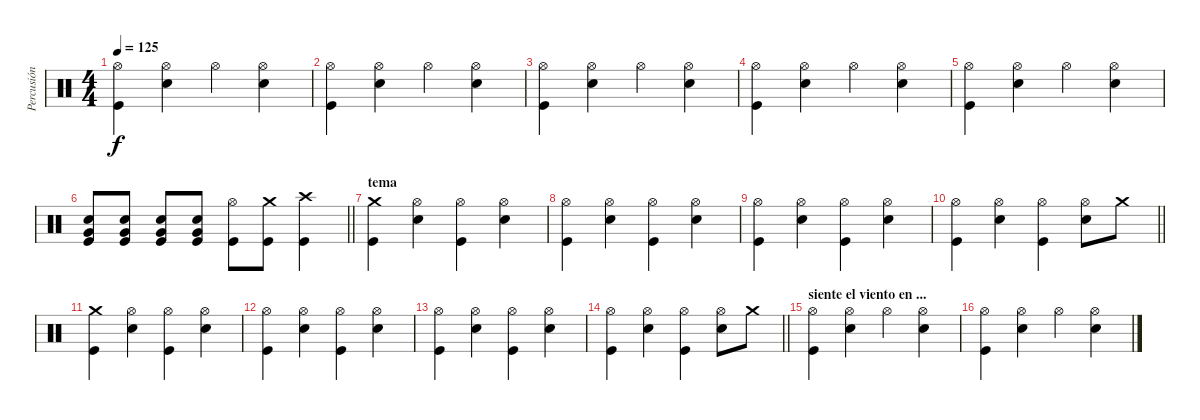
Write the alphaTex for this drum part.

\track ("Percusión" "Percusión") {instrument percussion}
\staff {score}
\articulation defaults
\ts (4 4)
\tempo 125
\clef neutral
\ks c
("Hi-Hat (open)" "Kick (hit)").4{dy f} ("Hi-Hat (open)" "Electric Snare (hit)").4 "Hi-Hat (open)".4 ("Hi-Hat (open)" "Electric Snare (hit)").4 |
("Hi-Hat (open)" "Kick (hit)").4 ("Hi-Hat (open)" "Electric Snare (hit)").4 "Hi-Hat (open)".4 ("Hi-Hat (open)" "Electric Snare (hit)").4 |
("Hi-Hat (open)" "Kick (hit)").4 ("Hi-Hat (open)" "Electric Snare (hit)").4 "Hi-Hat (open)".4 ("Hi-Hat (open)" "Electric Snare (hit)").4 |
("Hi-Hat (open)" "Kick (hit)").4 ("Hi-Hat (open)" "Electric Snare (hit)").4 "Hi-Hat (open)".4 ("Hi-Hat (open)" "Electric Snare (hit)").4 |
("Hi-Hat (open)" "Kick (hit)").4 ("Hi-Hat (open)" "Electric Snare (hit)").4 "Hi-Hat (open)".4 ("Hi-Hat (open)" "Electric Snare (hit)").4 |
\barLineRight lightlight
("Electric Snare (hit)" "Very Low Tom (hit)" "Kick (hit)").8 ("Electric Snare (hit)" "Very Low Tom (hit)" "Kick (hit)").8 ("Electric Snare (hit)" "Very Low Tom (hit)" "Kick (hit)").8 ("Electric Snare (hit)" "Very Low Tom (hit)" "Kick (hit)").8 ("Hi-Hat (open)" "Kick (hit)").8 ("Crash medium (hit)" "Kick (hit)").8 ("Crash high (hit)" "Kick (hit)").4 |
\section ("" "tema")
("Crash medium (hit)" "Kick (hit)").4 ("Hi-Hat (open)" "Electric Snare (hit)").4 ("Hi-Hat (open)" "Kick (hit)").4 ("Hi-Hat (open)" "Electric Snare (hit)").4 |
("Hi-Hat (open)" "Kick (hit)").4 ("Hi-Hat (open)" "Electric Snare (hit)").4 ("Hi-Hat (open)" "Kick (hit)").4 ("Hi-Hat (open)" "Electric Snare (hit)").4 |
("Hi-Hat (open)" "Kick (hit)").4 ("Hi-Hat (open)" "Electric Snare (hit)").4 ("Hi-Hat (open)" "Kick (hit)").4 ("Hi-Hat (open)" "Electric Snare (hit)").4 |
\barLineRight lightlight
("Hi-Hat (open)" "Kick (hit)").4 ("Hi-Hat (open)" "Electric Snare (hit)").4 ("Hi-Hat (open)" "Kick (hit)").4 ("Hi-Hat (open)" "Electric Snare (hit)").8 "Crash medium (hit)".8 |
("Crash medium (hit)" "Kick (hit)").4 ("Hi-Hat (open)" "Electric Snare (hit)").4 ("Hi-Hat (open)" "Kick (hit)").4 ("Hi-Hat (open)" "Electric Snare (hit)").4 |
("Hi-Hat (open)" "Kick (hit)").4 ("Hi-Hat (open)" "Electric Snare (hit)").4 ("Hi-Hat (open)" "Kick (hit)").4 ("Hi-Hat (open)" "Electric Snare (hit)").4 |
("Hi-Hat (open)" "Kick (hit)").4 ("Hi-Hat (open)" "Electric Snare (hit)").4 ("Hi-Hat (open)" "Kick (hit)").4 ("Hi-Hat (open)" "Electric Snare (hit)").4 |
\barLineRight lightlight
("Hi-Hat (open)" "Kick (hit)").4 ("Hi-Hat (open)" "Electric Snare (hit)").4 ("Hi-Hat (open)" "Kick (hit)").4 ("Hi-Hat (open)" "Electric Snare (hit)").8 "Crash medium (hit)".8 |
\section ("" "siente el viento en ...")
("Hi-Hat (open)" "Kick (hit)").4{volume 12} ("Hi-Hat (open)" "Electric Snare (hit)").4 "Hi-Hat (open)".4 ("Hi-Hat (open)" "Electric Snare (hit)").4 |
("Hi-Hat (open)" "Kick (hit)").4 ("Hi-Hat (open)" "Electric Snare (hit)").4 "Hi-Hat (open)".4 ("Hi-Hat (open)" "Electric Snare (hit)").4
